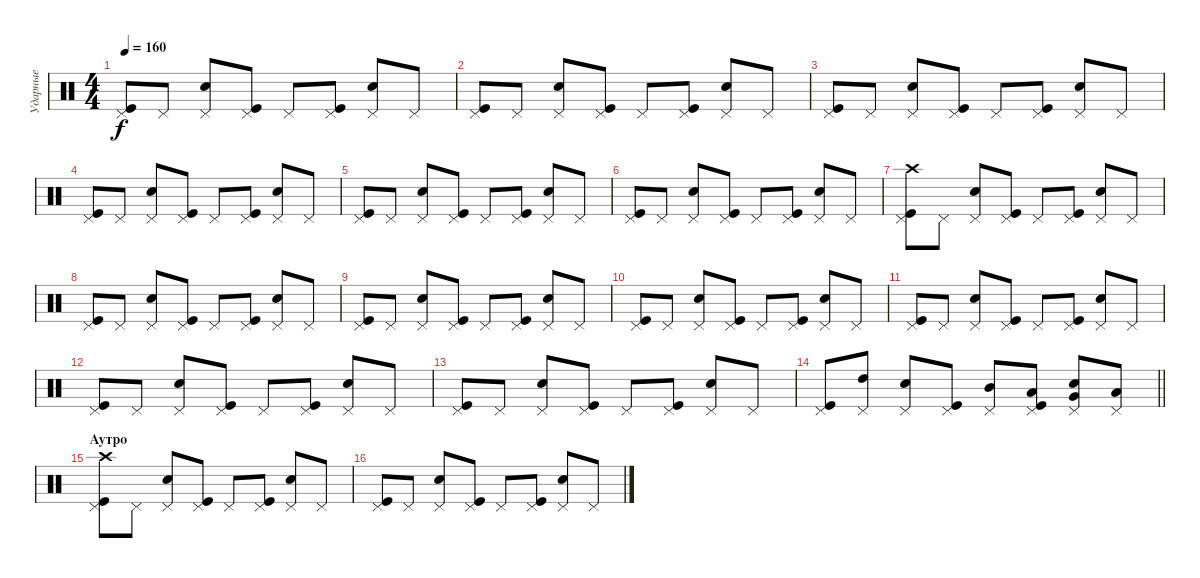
\track ("Ударные" "Ударные") {instrument percussion}
\staff {score}
\articulation defaults
\ts (4 4)
\tempo 160
\clef neutral
\ks c
("Pedal Hi-Hat (hit)" "Kick (hit)").8{dy f} "Pedal Hi-Hat (hit)".8 ("Pedal Hi-Hat (hit)" "Snare (hit) 2").8 ("Pedal Hi-Hat (hit)" "Kick (hit)").8 "Pedal Hi-Hat (hit)".8 ("Pedal Hi-Hat (hit)" "Kick (hit)").8 ("Pedal Hi-Hat (hit)" "Snare (hit) 2").8 "Pedal Hi-Hat (hit)".8 |
("Pedal Hi-Hat (hit)" "Kick (hit)").8 "Pedal Hi-Hat (hit)".8 ("Pedal Hi-Hat (hit)" "Snare (hit) 2").8 ("Pedal Hi-Hat (hit)" "Kick (hit)").8 "Pedal Hi-Hat (hit)".8 ("Pedal Hi-Hat (hit)" "Kick (hit)").8 ("Pedal Hi-Hat (hit)" "Snare (hit) 2").8 "Pedal Hi-Hat (hit)".8 |
("Pedal Hi-Hat (hit)" "Kick (hit)").8 "Pedal Hi-Hat (hit)".8 ("Pedal Hi-Hat (hit)" "Snare (hit) 2").8 ("Pedal Hi-Hat (hit)" "Kick (hit)").8 "Pedal Hi-Hat (hit)".8 ("Pedal Hi-Hat (hit)" "Kick (hit)").8 ("Pedal Hi-Hat (hit)" "Snare (hit) 2").8 "Pedal Hi-Hat (hit)".8 |
("Pedal Hi-Hat (hit)" "Kick (hit)").8 "Pedal Hi-Hat (hit)".8 ("Pedal Hi-Hat (hit)" "Snare (hit) 2").8 ("Pedal Hi-Hat (hit)" "Kick (hit)").8 "Pedal Hi-Hat (hit)".8 ("Pedal Hi-Hat (hit)" "Kick (hit)").8 ("Pedal Hi-Hat (hit)" "Snare (hit) 2").8 "Pedal Hi-Hat (hit)".8 |
("Pedal Hi-Hat (hit)" "Kick (hit)").8 "Pedal Hi-Hat (hit)".8 ("Pedal Hi-Hat (hit)" "Snare (hit) 2").8 ("Pedal Hi-Hat (hit)" "Kick (hit)").8 "Pedal Hi-Hat (hit)".8 ("Pedal Hi-Hat (hit)" "Kick (hit)").8 ("Pedal Hi-Hat (hit)" "Snare (hit) 2").8 "Pedal Hi-Hat (hit)".8 |
("Pedal Hi-Hat (hit)" "Kick (hit)").8 "Pedal Hi-Hat (hit)".8 ("Pedal Hi-Hat (hit)" "Snare (hit) 2").8 ("Pedal Hi-Hat (hit)" "Kick (hit)").8 "Pedal Hi-Hat (hit)".8 ("Pedal Hi-Hat (hit)" "Kick (hit)").8 ("Pedal Hi-Hat (hit)" "Snare (hit) 2").8 "Pedal Hi-Hat (hit)".8 |
("Pedal Hi-Hat (hit)" "Crash high (hit)" "Kick (hit)").8 "Pedal Hi-Hat (hit)".8 ("Pedal Hi-Hat (hit)" "Snare (hit) 2").8 ("Pedal Hi-Hat (hit)" "Kick (hit)").8 "Pedal Hi-Hat (hit)".8 ("Pedal Hi-Hat (hit)" "Kick (hit)").8 ("Pedal Hi-Hat (hit)" "Snare (hit) 2").8 "Pedal Hi-Hat (hit)".8 |
("Pedal Hi-Hat (hit)" "Kick (hit)").8 "Pedal Hi-Hat (hit)".8 ("Pedal Hi-Hat (hit)" "Snare (hit) 2").8 ("Pedal Hi-Hat (hit)" "Kick (hit)").8 "Pedal Hi-Hat (hit)".8 ("Pedal Hi-Hat (hit)" "Kick (hit)").8 ("Pedal Hi-Hat (hit)" "Snare (hit) 2").8 "Pedal Hi-Hat (hit)".8 |
("Pedal Hi-Hat (hit)" "Kick (hit)").8 "Pedal Hi-Hat (hit)".8 ("Pedal Hi-Hat (hit)" "Snare (hit) 2").8 ("Pedal Hi-Hat (hit)" "Kick (hit)").8 "Pedal Hi-Hat (hit)".8 ("Pedal Hi-Hat (hit)" "Kick (hit)").8 ("Pedal Hi-Hat (hit)" "Snare (hit) 2").8 "Pedal Hi-Hat (hit)".8 |
("Pedal Hi-Hat (hit)" "Kick (hit)").8 "Pedal Hi-Hat (hit)".8 ("Pedal Hi-Hat (hit)" "Snare (hit) 2").8 ("Pedal Hi-Hat (hit)" "Kick (hit)").8 "Pedal Hi-Hat (hit)".8 ("Pedal Hi-Hat (hit)" "Kick (hit)").8 ("Pedal Hi-Hat (hit)" "Snare (hit) 2").8 "Pedal Hi-Hat (hit)".8 |
("Pedal Hi-Hat (hit)" "Kick (hit)").8 "Pedal Hi-Hat (hit)".8 ("Pedal Hi-Hat (hit)" "Snare (hit) 2").8 ("Pedal Hi-Hat (hit)" "Kick (hit)").8 "Pedal Hi-Hat (hit)".8 ("Pedal Hi-Hat (hit)" "Kick (hit)").8 ("Pedal Hi-Hat (hit)" "Snare (hit) 2").8 "Pedal Hi-Hat (hit)".8 |
("Pedal Hi-Hat (hit)" "Kick (hit)").8 "Pedal Hi-Hat (hit)".8 ("Pedal Hi-Hat (hit)" "Snare (hit) 2").8 ("Pedal Hi-Hat (hit)" "Kick (hit)").8 "Pedal Hi-Hat (hit)".8 ("Pedal Hi-Hat (hit)" "Kick (hit)").8 ("Pedal Hi-Hat (hit)" "Snare (hit) 2").8 "Pedal Hi-Hat (hit)".8 |
("Pedal Hi-Hat (hit)" "Kick (hit)").8 "Pedal Hi-Hat (hit)".8 ("Pedal Hi-Hat (hit)" "Snare (hit) 2").8 ("Pedal Hi-Hat (hit)" "Kick (hit)").8 "Pedal Hi-Hat (hit)".8 ("Pedal Hi-Hat (hit)" "Kick (hit)").8 ("Pedal Hi-Hat (hit)" "Snare (hit) 2").8 "Pedal Hi-Hat (hit)".8 |
\barLineRight lightlight
("Pedal Hi-Hat (hit)" "Kick (hit)").8 ("Pedal Hi-Hat (hit)" "High Tom (hit)").8 ("Pedal Hi-Hat (hit)" "Snare (hit) 2").8 ("Pedal Hi-Hat (hit)" "Kick (hit)").8 ("Pedal Hi-Hat (hit)" "Mid Tom (hit)").8 ("Pedal Hi-Hat (hit)" "Low Tom (hit)" "Kick (hit)").8 ("Pedal Hi-Hat (hit)" "Very Low Tom (hit)" "Snare (hit) 2").8 ("Pedal Hi-Hat (hit)" "Low Floor Tom (hit)").8 |
\section ("" "Аутро")
("Pedal Hi-Hat (hit)" "Crash high (hit)" "Kick (hit)").8 "Pedal Hi-Hat (hit)".8 ("Pedal Hi-Hat (hit)" "Snare (hit) 2").8 ("Pedal Hi-Hat (hit)" "Kick (hit)").8 "Pedal Hi-Hat (hit)".8 ("Pedal Hi-Hat (hit)" "Kick (hit)").8 ("Pedal Hi-Hat (hit)" "Snare (hit) 2").8 "Pedal Hi-Hat (hit)".8 |
("Pedal Hi-Hat (hit)" "Kick (hit)").8 "Pedal Hi-Hat (hit)".8 ("Pedal Hi-Hat (hit)" "Snare (hit) 2").8 ("Pedal Hi-Hat (hit)" "Kick (hit)").8 "Pedal Hi-Hat (hit)".8 ("Pedal Hi-Hat (hit)" "Kick (hit)").8 ("Pedal Hi-Hat (hit)" "Snare (hit) 2").8 "Pedal Hi-Hat (hit)".8
